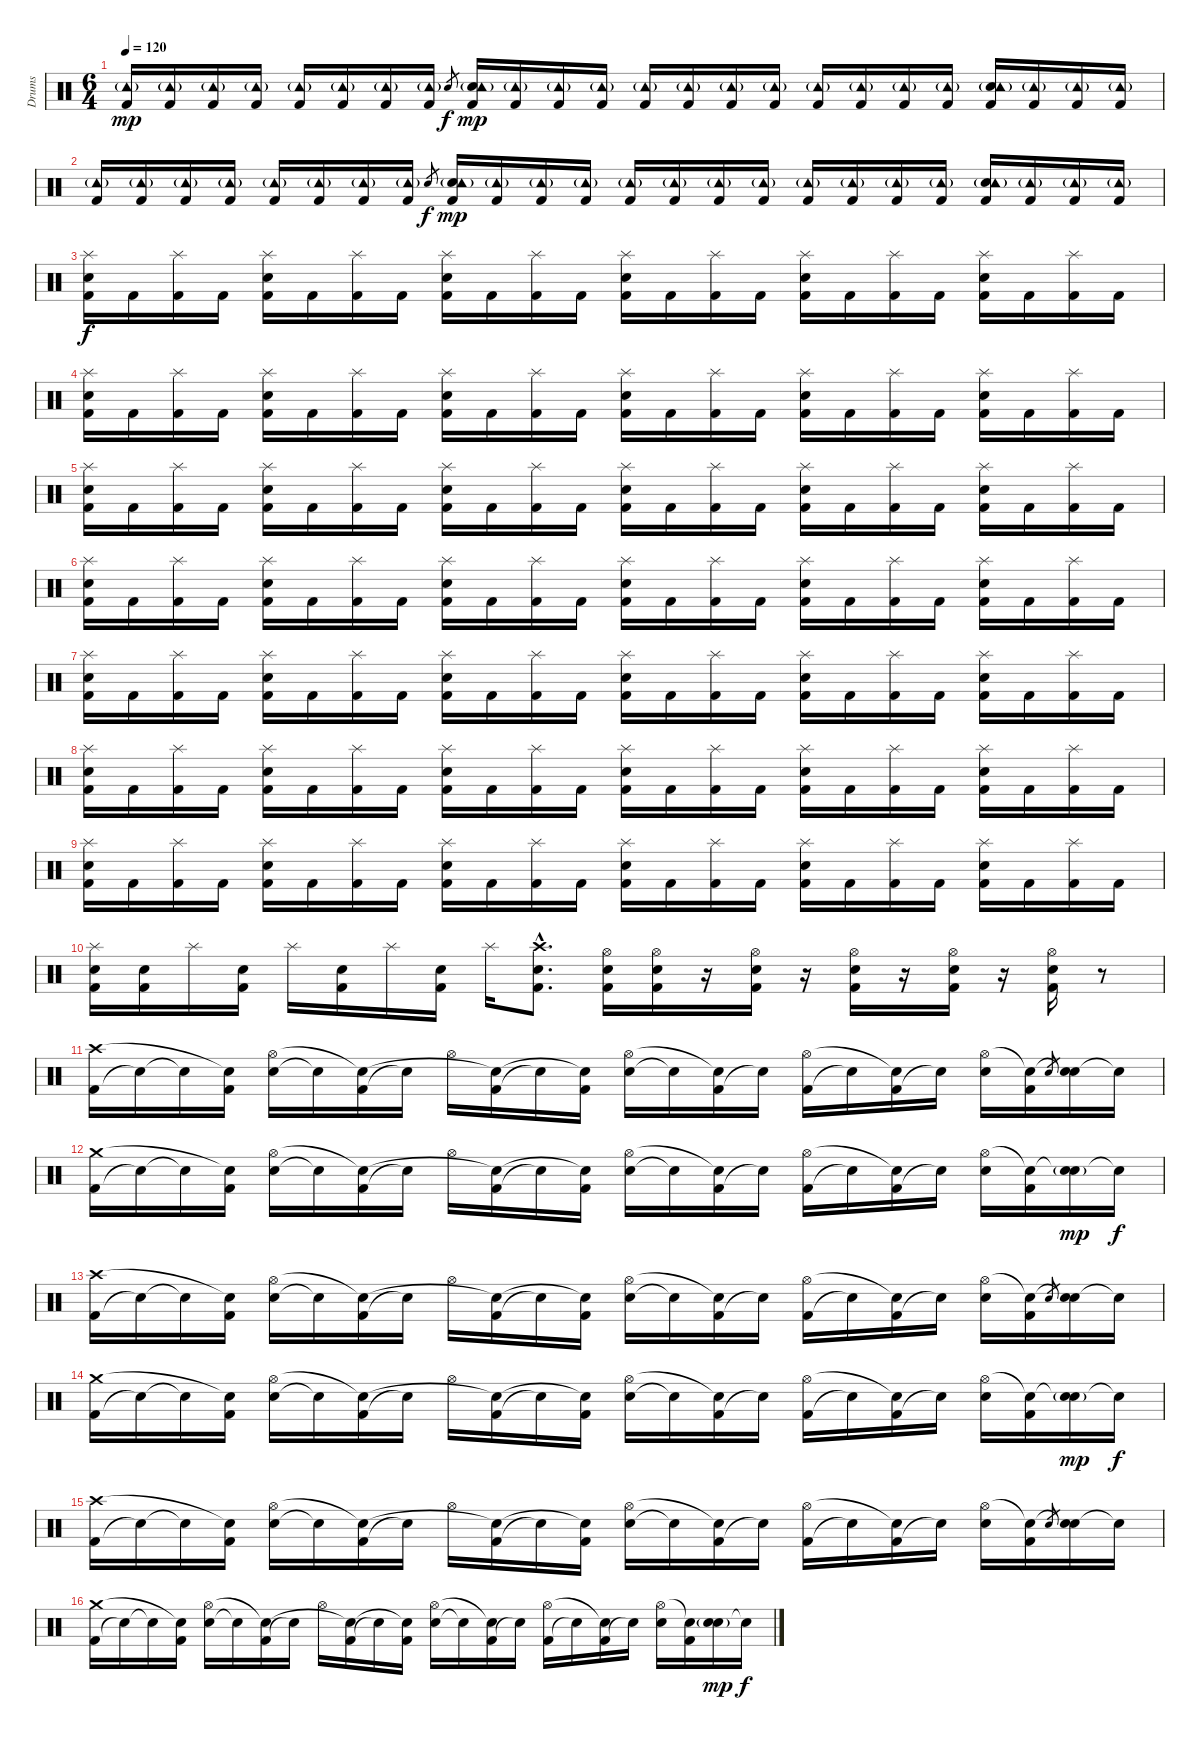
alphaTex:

\track ("Drums" "Drums") {instrument percussion}
\staff {score}
\articulation defaults
\ts (6 4)
\tempo 120
\clef neutral
\ks c
("Kick (hit) 2" "Tambourine (hit)"{g}).16{dy mp} ("Kick (hit) 2" "Tambourine (hit)"{g}).16 ("Kick (hit) 2" "Tambourine (hit)"{g}).16 ("Kick (hit) 2" "Tambourine (hit)"{g}).16 ("Kick (hit) 2" "Tambourine (hit)"{g}).16 ("Kick (hit) 2" "Tambourine (hit)"{g}).16 ("Kick (hit) 2" "Tambourine (hit)"{g}).16 ("Kick (hit) 2" "Tambourine (hit)"{g}).16 "Snare (hit) 2".8{gr dy f} ("Kick (hit) 2" "Snare (hit) 2" "Tambourine (hit)"{g}).16{dy mp} ("Kick (hit) 2" "Tambourine (hit)"{g}).16 ("Kick (hit) 2" "Tambourine (hit)"{g}).16 ("Kick (hit) 2" "Tambourine (hit)"{g}).16 ("Kick (hit) 2" "Tambourine (hit)"{g}).16 ("Kick (hit) 2" "Tambourine (hit)"{g}).16 ("Kick (hit) 2" "Tambourine (hit)"{g}).16 ("Kick (hit) 2" "Tambourine (hit)"{g}).16 ("Kick (hit) 2" "Tambourine (hit)"{g}).16 ("Kick (hit) 2" "Tambourine (hit)"{g}).16 ("Kick (hit) 2" "Tambourine (hit)"{g}).16 ("Kick (hit) 2" "Tambourine (hit)"{g}).16 ("Kick (hit) 2" "Snare (hit) 2" "Tambourine (hit)"{g}).16 ("Kick (hit) 2" "Tambourine (hit)"{g}).16 ("Kick (hit) 2" "Tambourine (hit)"{g}).16 ("Kick (hit) 2" "Tambourine (hit)"{g}).16 |
("Kick (hit) 2" "Tambourine (hit)"{g}).16 ("Kick (hit) 2" "Tambourine (hit)"{g}).16 ("Kick (hit) 2" "Tambourine (hit)"{g}).16 ("Kick (hit) 2" "Tambourine (hit)"{g}).16 ("Kick (hit) 2" "Tambourine (hit)"{g}).16 ("Kick (hit) 2" "Tambourine (hit)"{g}).16 ("Kick (hit) 2" "Tambourine (hit)"{g}).16 ("Kick (hit) 2" "Tambourine (hit)"{g}).16 "Snare (hit) 2".8{gr dy f} ("Kick (hit) 2" "Snare (hit) 2" "Tambourine (hit)"{g}).16{dy mp} ("Kick (hit) 2" "Tambourine (hit)"{g}).16 ("Kick (hit) 2" "Tambourine (hit)"{g}).16 ("Kick (hit) 2" "Tambourine (hit)"{g}).16 ("Kick (hit) 2" "Tambourine (hit)"{g}).16 ("Kick (hit) 2" "Tambourine (hit)"{g}).16 ("Kick (hit) 2" "Tambourine (hit)"{g}).16 ("Kick (hit) 2" "Tambourine (hit)"{g}).16 ("Kick (hit) 2" "Tambourine (hit)"{g}).16 ("Kick (hit) 2" "Tambourine (hit)"{g}).16 ("Kick (hit) 2" "Tambourine (hit)"{g}).16 ("Kick (hit) 2" "Tambourine (hit)"{g}).16 ("Kick (hit) 2" "Snare (hit) 2" "Tambourine (hit)"{g}).16 ("Kick (hit) 2" "Tambourine (hit)"{g}).16 ("Kick (hit) 2" "Tambourine (hit)"{g}).16 ("Kick (hit) 2" "Tambourine (hit)"{g}).16 |
("Kick (hit) 2" "Snare (hit) 2" "Splash (hit)").16{dy f} "Kick (hit) 2".16 ("Kick (hit) 2" "Splash (hit)").16 "Kick (hit) 2".16 ("Kick (hit) 2" "Snare (hit) 2" "Splash (hit)").16 "Kick (hit) 2".16 ("Kick (hit) 2" "Splash (hit)").16 "Kick (hit) 2".16 ("Kick (hit) 2" "Snare (hit) 2" "Splash (hit)").16 "Kick (hit) 2".16 ("Kick (hit) 2" "Splash (hit)").16 "Kick (hit) 2".16 ("Kick (hit) 2" "Snare (hit) 2" "Splash (hit)").16 "Kick (hit) 2".16 ("Kick (hit) 2" "Splash (hit)").16 "Kick (hit) 2".16 ("Kick (hit) 2" "Snare (hit) 2" "Splash (hit)").16 "Kick (hit) 2".16 ("Kick (hit) 2" "Splash (hit)").16 "Kick (hit) 2".16 ("Kick (hit) 2" "Snare (hit) 2" "Splash (hit)").16 "Kick (hit) 2".16 ("Kick (hit) 2" "Splash (hit)").16 "Kick (hit) 2".16 |
("Kick (hit) 2" "Snare (hit) 2" "Splash (hit)").16 "Kick (hit) 2".16 ("Kick (hit) 2" "Splash (hit)").16 "Kick (hit) 2".16 ("Kick (hit) 2" "Snare (hit) 2" "Splash (hit)").16 "Kick (hit) 2".16 ("Kick (hit) 2" "Splash (hit)").16 "Kick (hit) 2".16 ("Kick (hit) 2" "Snare (hit) 2" "Splash (hit)").16 "Kick (hit) 2".16 ("Kick (hit) 2" "Splash (hit)").16 "Kick (hit) 2".16 ("Kick (hit) 2" "Snare (hit) 2" "Splash (hit)").16 "Kick (hit) 2".16 ("Kick (hit) 2" "Splash (hit)").16 "Kick (hit) 2".16 ("Kick (hit) 2" "Snare (hit) 2" "Splash (hit)").16 "Kick (hit) 2".16 ("Kick (hit) 2" "Splash (hit)").16 "Kick (hit) 2".16 ("Kick (hit) 2" "Snare (hit) 2" "Splash (hit)").16 "Kick (hit) 2".16 ("Kick (hit) 2" "Splash (hit)").16 "Kick (hit) 2".16 |
("Kick (hit) 2" "Snare (hit) 2" "Splash (hit)").16 "Kick (hit) 2".16 ("Kick (hit) 2" "Splash (hit)").16 "Kick (hit) 2".16 ("Kick (hit) 2" "Snare (hit) 2" "Splash (hit)").16 "Kick (hit) 2".16 ("Kick (hit) 2" "Splash (hit)").16 "Kick (hit) 2".16 ("Kick (hit) 2" "Snare (hit) 2" "Splash (hit)").16 "Kick (hit) 2".16 ("Kick (hit) 2" "Splash (hit)").16 "Kick (hit) 2".16 ("Kick (hit) 2" "Snare (hit) 2" "Splash (hit)").16 "Kick (hit) 2".16 ("Kick (hit) 2" "Splash (hit)").16 "Kick (hit) 2".16 ("Kick (hit) 2" "Snare (hit) 2" "Splash (hit)").16 "Kick (hit) 2".16 ("Kick (hit) 2" "Splash (hit)").16 "Kick (hit) 2".16 ("Kick (hit) 2" "Snare (hit) 2" "Splash (hit)").16 "Kick (hit) 2".16 ("Kick (hit) 2" "Splash (hit)").16 "Kick (hit) 2".16 |
("Kick (hit) 2" "Snare (hit) 2" "Splash (hit)").16 "Kick (hit) 2".16 ("Kick (hit) 2" "Splash (hit)").16 "Kick (hit) 2".16 ("Kick (hit) 2" "Snare (hit) 2" "Splash (hit)").16 "Kick (hit) 2".16 ("Kick (hit) 2" "Splash (hit)").16 "Kick (hit) 2".16 ("Kick (hit) 2" "Snare (hit) 2" "Splash (hit)").16 "Kick (hit) 2".16 ("Kick (hit) 2" "Splash (hit)").16 "Kick (hit) 2".16 ("Kick (hit) 2" "Snare (hit) 2" "Splash (hit)").16 "Kick (hit) 2".16 ("Kick (hit) 2" "Splash (hit)").16 "Kick (hit) 2".16 ("Kick (hit) 2" "Snare (hit) 2" "Splash (hit)").16 "Kick (hit) 2".16 ("Kick (hit) 2" "Splash (hit)").16 "Kick (hit) 2".16 ("Kick (hit) 2" "Snare (hit) 2" "Splash (hit)").16 "Kick (hit) 2".16 ("Kick (hit) 2" "Splash (hit)").16 "Kick (hit) 2".16 |
("Kick (hit) 2" "Snare (hit) 2" "Splash (hit)").16 "Kick (hit) 2".16 ("Kick (hit) 2" "Splash (hit)").16 "Kick (hit) 2".16 ("Kick (hit) 2" "Snare (hit) 2" "Splash (hit)").16 "Kick (hit) 2".16 ("Kick (hit) 2" "Splash (hit)").16 "Kick (hit) 2".16 ("Kick (hit) 2" "Snare (hit) 2" "Splash (hit)").16 "Kick (hit) 2".16 ("Kick (hit) 2" "Splash (hit)").16 "Kick (hit) 2".16 ("Kick (hit) 2" "Snare (hit) 2" "Splash (hit)").16 "Kick (hit) 2".16 ("Kick (hit) 2" "Splash (hit)").16 "Kick (hit) 2".16 ("Kick (hit) 2" "Snare (hit) 2" "Splash (hit)").16 "Kick (hit) 2".16 ("Kick (hit) 2" "Splash (hit)").16 "Kick (hit) 2".16 ("Kick (hit) 2" "Snare (hit) 2" "Splash (hit)").16 "Kick (hit) 2".16 ("Kick (hit) 2" "Splash (hit)").16 "Kick (hit) 2".16 |
("Kick (hit) 2" "Snare (hit) 2" "Splash (hit)").16 "Kick (hit) 2".16 ("Kick (hit) 2" "Splash (hit)").16 "Kick (hit) 2".16 ("Kick (hit) 2" "Snare (hit) 2" "Splash (hit)").16 "Kick (hit) 2".16 ("Kick (hit) 2" "Splash (hit)").16 "Kick (hit) 2".16 ("Kick (hit) 2" "Snare (hit) 2" "Splash (hit)").16 "Kick (hit) 2".16 ("Kick (hit) 2" "Splash (hit)").16 "Kick (hit) 2".16 ("Kick (hit) 2" "Snare (hit) 2" "Splash (hit)").16 "Kick (hit) 2".16 ("Kick (hit) 2" "Splash (hit)").16 "Kick (hit) 2".16 ("Kick (hit) 2" "Snare (hit) 2" "Splash (hit)").16 "Kick (hit) 2".16 ("Kick (hit) 2" "Splash (hit)").16 "Kick (hit) 2".16 ("Kick (hit) 2" "Snare (hit) 2" "Splash (hit)").16 "Kick (hit) 2".16 ("Kick (hit) 2" "Splash (hit)").16 "Kick (hit) 2".16 |
("Kick (hit) 2" "Snare (hit) 2" "Splash (hit)").16 "Kick (hit) 2".16 ("Kick (hit) 2" "Splash (hit)").16 "Kick (hit) 2".16 ("Kick (hit) 2" "Snare (hit) 2" "Splash (hit)").16 "Kick (hit) 2".16 ("Kick (hit) 2" "Splash (hit)").16 "Kick (hit) 2".16 ("Kick (hit) 2" "Snare (hit) 2" "Splash (hit)").16 "Kick (hit) 2".16 ("Kick (hit) 2" "Splash (hit)").16 "Kick (hit) 2".16 ("Kick (hit) 2" "Snare (hit) 2" "Splash (hit)").16 "Kick (hit) 2".16 ("Kick (hit) 2" "Splash (hit)").16 "Kick (hit) 2".16 ("Kick (hit) 2" "Snare (hit) 2" "Splash (hit)").16 "Kick (hit) 2".16 ("Kick (hit) 2" "Splash (hit)").16 "Kick (hit) 2".16 ("Kick (hit) 2" "Snare (hit) 2" "Splash (hit)").16 "Kick (hit) 2".16 ("Kick (hit) 2" "Splash (hit)").16 "Kick (hit) 2".16 |
("Kick (hit) 2" "Snare (hit) 2" "Splash (hit)").16 ("Kick (hit) 2" "Snare (hit) 2").16 "Splash (hit)".16 ("Kick (hit) 2" "Snare (hit) 2").16 "Splash (hit)".16 ("Kick (hit) 2" "Snare (hit) 2").16 "Splash (hit)".16 ("Kick (hit) 2" "Snare (hit) 2").16 "Splash (hit)".16 ("Kick (hit) 2"{hac} "Snare (hit) 2"{hac} "Crash high (hit)"{hac}).8{d} ("Kick (hit) 2" "Snare (hit) 2" "Hi-Hat (open)").16 ("Kick (hit) 2" "Snare (hit) 2" "Hi-Hat (open)").16 r.16 ("Kick (hit) 2" "Snare (hit) 2" "Hi-Hat (open)").16 r.16 ("Kick (hit) 2" "Snare (hit) 2" "Hi-Hat (open)").16 r.16 ("Kick (hit) 2" "Snare (hit) 2" "Hi-Hat (open)").16 r.16 ("Kick (hit) 2" "Snare (hit) 2" "Hi-Hat (open)").16 r.8 |
("Kick (hit) 2" "Crash high (hit)").16 "Snare (hit)"{t}.16 "Snare (hit)"{t}.16 ("Kick (hit) 2" "Snare (hit)"{t}).16 ("Snare (hit) 2" "Hi-Hat (open)").16 "Snare (hit)"{t}.16 ("Kick (hit) 2" "Snare (hit)"{t}).16 "Snare (hit)"{t}.16 "Hi-Hat (open)".16 ("Kick (hit) 2" "Snare (hit)"{t}).16 "Snare (hit)"{t}.16 ("Kick (hit) 2" "Snare (hit)"{t}).16 ("Snare (hit) 2" "Hi-Hat (open)").16 "Snare (hit)"{t}.16 ("Kick (hit) 2" "Snare (hit)"{t}).16 "Snare (hit)"{t}.16 ("Kick (hit) 2" "Hi-Hat (open)").16 "Snare (hit)"{t}.16 ("Kick (hit) 2" "Snare (hit)"{t}).16 "Snare (hit)"{t}.16 ("Snare (hit) 2" "Hi-Hat (open)").16 ("Kick (hit) 2" "Snare (hit)"{t}).16 "Snare (hit) 2".8{gr} ("Snare (hit) 2" "Snare (hit)"{t}).16 "Snare (hit)"{t}.16 |
("Kick (hit) 2" "Crash medium (hit)").16 "Snare (hit)"{t}.16 "Snare (hit)"{t}.16 ("Kick (hit) 2" "Snare (hit)"{t}).16 ("Snare (hit) 2" "Hi-Hat (open)").16 "Snare (hit)"{t}.16 ("Kick (hit) 2" "Snare (hit)"{t}).16 "Snare (hit)"{t}.16 "Hi-Hat (open)".16 ("Kick (hit) 2" "Snare (hit)"{t}).16 "Snare (hit)"{t}.16 ("Kick (hit) 2" "Snare (hit)"{t}).16 ("Snare (hit) 2" "Hi-Hat (open)").16 "Snare (hit)"{t}.16 ("Kick (hit) 2" "Snare (hit)"{t}).16 "Snare (hit)"{t}.16 ("Kick (hit) 2" "Hi-Hat (open)").16 "Snare (hit)"{t}.16 ("Kick (hit) 2" "Snare (hit)"{t}).16 "Snare (hit)"{t}.16 ("Snare (hit) 2" "Hi-Hat (open)").16 ("Kick (hit) 2" "Snare (hit)"{t}).16 ("Snare (hit) 2"{g} "Snare (hit)"{t}).16{dy mp} "Snare (hit)"{t}.16{dy f} |
("Kick (hit) 2" "Crash high (hit)").16 "Snare (hit)"{t}.16 "Snare (hit)"{t}.16 ("Kick (hit) 2" "Snare (hit)"{t}).16 ("Snare (hit) 2" "Hi-Hat (open)").16 "Snare (hit)"{t}.16 ("Kick (hit) 2" "Snare (hit)"{t}).16 "Snare (hit)"{t}.16 "Hi-Hat (open)".16 ("Kick (hit) 2" "Snare (hit)"{t}).16 "Snare (hit)"{t}.16 ("Kick (hit) 2" "Snare (hit)"{t}).16 ("Snare (hit) 2" "Hi-Hat (open)").16 "Snare (hit)"{t}.16 ("Kick (hit) 2" "Snare (hit)"{t}).16 "Snare (hit)"{t}.16 ("Kick (hit) 2" "Hi-Hat (open)").16 "Snare (hit)"{t}.16 ("Kick (hit) 2" "Snare (hit)"{t}).16 "Snare (hit)"{t}.16 ("Snare (hit) 2" "Hi-Hat (open)").16 ("Kick (hit) 2" "Snare (hit)"{t}).16 "Snare (hit) 2".8{gr} ("Snare (hit) 2" "Snare (hit)"{t}).16 "Snare (hit)"{t}.16 |
("Kick (hit) 2" "Crash medium (hit)").16 "Snare (hit)"{t}.16 "Snare (hit)"{t}.16 ("Kick (hit) 2" "Snare (hit)"{t}).16 ("Snare (hit) 2" "Hi-Hat (open)").16 "Snare (hit)"{t}.16 ("Kick (hit) 2" "Snare (hit)"{t}).16 "Snare (hit)"{t}.16 "Hi-Hat (open)".16 ("Kick (hit) 2" "Snare (hit)"{t}).16 "Snare (hit)"{t}.16 ("Kick (hit) 2" "Snare (hit)"{t}).16 ("Snare (hit) 2" "Hi-Hat (open)").16 "Snare (hit)"{t}.16 ("Kick (hit) 2" "Snare (hit)"{t}).16 "Snare (hit)"{t}.16 ("Kick (hit) 2" "Hi-Hat (open)").16 "Snare (hit)"{t}.16 ("Kick (hit) 2" "Snare (hit)"{t}).16 "Snare (hit)"{t}.16 ("Snare (hit) 2" "Hi-Hat (open)").16 ("Kick (hit) 2" "Snare (hit)"{t}).16 ("Snare (hit) 2"{g} "Snare (hit)"{t}).16{dy mp} "Snare (hit)"{t}.16{dy f} |
("Kick (hit) 2" "Crash high (hit)").16 "Snare (hit)"{t}.16 "Snare (hit)"{t}.16 ("Kick (hit) 2" "Snare (hit)"{t}).16 ("Snare (hit) 2" "Hi-Hat (open)").16 "Snare (hit)"{t}.16 ("Kick (hit) 2" "Snare (hit)"{t}).16 "Snare (hit)"{t}.16 "Hi-Hat (open)".16 ("Kick (hit) 2" "Snare (hit)"{t}).16 "Snare (hit)"{t}.16 ("Kick (hit) 2" "Snare (hit)"{t}).16 ("Snare (hit) 2" "Hi-Hat (open)").16 "Snare (hit)"{t}.16 ("Kick (hit) 2" "Snare (hit)"{t}).16 "Snare (hit)"{t}.16 ("Kick (hit) 2" "Hi-Hat (open)").16 "Snare (hit)"{t}.16 ("Kick (hit) 2" "Snare (hit)"{t}).16 "Snare (hit)"{t}.16 ("Snare (hit) 2" "Hi-Hat (open)").16 ("Kick (hit) 2" "Snare (hit)"{t}).16 "Snare (hit) 2".8{gr} ("Snare (hit) 2" "Snare (hit)"{t}).16 "Snare (hit)"{t}.16 |
("Kick (hit) 2" "Crash medium (hit)").16 "Snare (hit)"{t}.16 "Snare (hit)"{t}.16 ("Kick (hit) 2" "Snare (hit)"{t}).16 ("Snare (hit) 2" "Hi-Hat (open)").16 "Snare (hit)"{t}.16 ("Kick (hit) 2" "Snare (hit)"{t}).16 "Snare (hit)"{t}.16 "Hi-Hat (open)".16 ("Kick (hit) 2" "Snare (hit)"{t}).16 "Snare (hit)"{t}.16 ("Kick (hit) 2" "Snare (hit)"{t}).16 ("Snare (hit) 2" "Hi-Hat (open)").16 "Snare (hit)"{t}.16 ("Kick (hit) 2" "Snare (hit)"{t}).16 "Snare (hit)"{t}.16 ("Kick (hit) 2" "Hi-Hat (open)").16 "Snare (hit)"{t}.16 ("Kick (hit) 2" "Snare (hit)"{t}).16 "Snare (hit)"{t}.16 ("Snare (hit) 2" "Hi-Hat (open)").16 ("Kick (hit) 2" "Snare (hit)"{t}).16 ("Snare (hit) 2"{g} "Snare (hit)"{t}).16{dy mp} "Snare (hit)"{t}.16{dy f}
